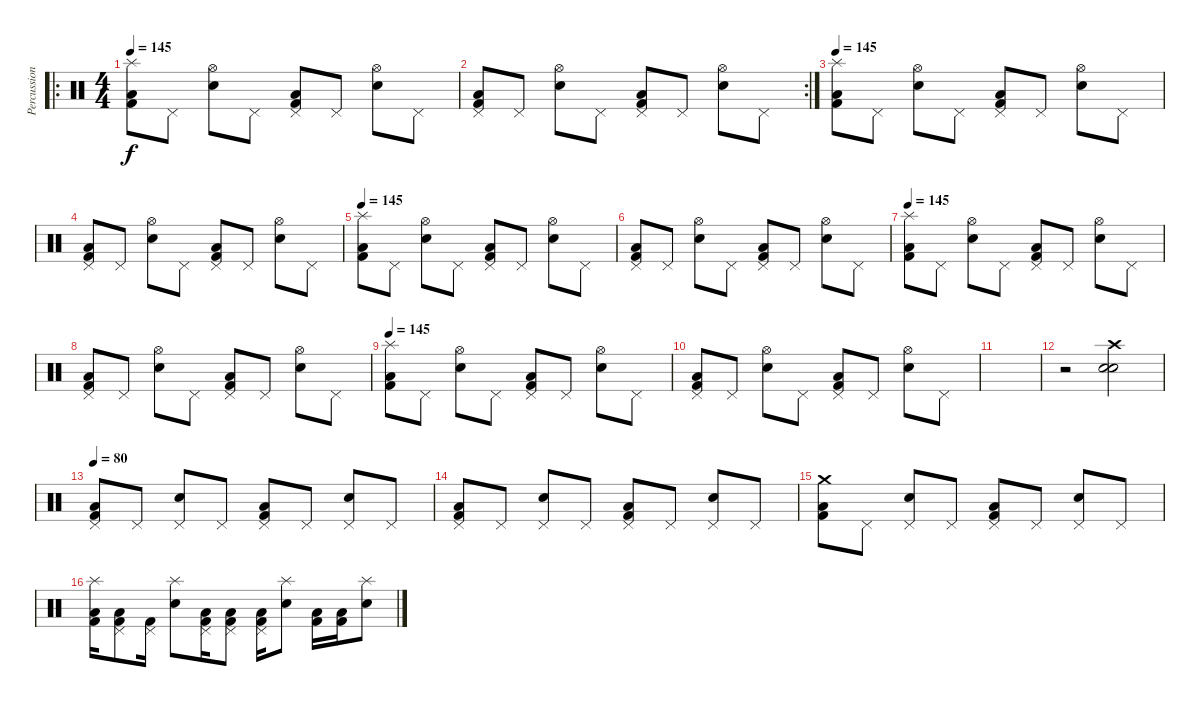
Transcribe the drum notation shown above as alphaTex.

\track ("Percussions" "Percussion") {instrument percussion}
\staff {score}
\articulation defaults
\ro
\ts (4 4)
\tempo 145
\clef neutral
\ks c
("Splash (hit)" "Kick (hit) 2" "Low Floor Tom (hit)").8{dy f} "Pedal Hi-Hat (hit)".8 ("Hi-Hat (open)" "Electric Snare (hit)").8 "Pedal Hi-Hat (hit)".8 ("Pedal Hi-Hat (hit)" "Kick (hit) 2" "Low Floor Tom (hit)").8 "Pedal Hi-Hat (hit)".8 ("Hi-Hat (open)" "Electric Snare (hit)").8 "Pedal Hi-Hat (hit)".8 |
\rc 2
("Pedal Hi-Hat (hit)" "Kick (hit) 2" "Low Floor Tom (hit)").8 "Pedal Hi-Hat (hit)".8 ("Hi-Hat (open)" "Electric Snare (hit)").8 "Pedal Hi-Hat (hit)".8 ("Pedal Hi-Hat (hit)" "Kick (hit) 2" "Low Floor Tom (hit)").8 "Pedal Hi-Hat (hit)".8 ("Hi-Hat (open)" "Electric Snare (hit)").8 "Pedal Hi-Hat (hit)".8 |
\tempo 145
("Splash (hit)" "Kick (hit) 2" "Low Floor Tom (hit)").8 "Pedal Hi-Hat (hit)".8 ("Hi-Hat (open)" "Electric Snare (hit)").8 "Pedal Hi-Hat (hit)".8 ("Pedal Hi-Hat (hit)" "Kick (hit) 2" "Low Floor Tom (hit)").8 "Pedal Hi-Hat (hit)".8 ("Hi-Hat (open)" "Electric Snare (hit)").8 "Pedal Hi-Hat (hit)".8 |
("Pedal Hi-Hat (hit)" "Kick (hit) 2" "Low Floor Tom (hit)").8 "Pedal Hi-Hat (hit)".8 ("Hi-Hat (open)" "Electric Snare (hit)").8 "Pedal Hi-Hat (hit)".8 ("Pedal Hi-Hat (hit)" "Kick (hit) 2" "Low Floor Tom (hit)").8 "Pedal Hi-Hat (hit)".8 ("Hi-Hat (open)" "Electric Snare (hit)").8 "Pedal Hi-Hat (hit)".8 |
\tempo 145
("Splash (hit)" "Kick (hit) 2" "Low Floor Tom (hit)").8 "Pedal Hi-Hat (hit)".8 ("Hi-Hat (open)" "Electric Snare (hit)").8 "Pedal Hi-Hat (hit)".8 ("Pedal Hi-Hat (hit)" "Kick (hit) 2" "Low Floor Tom (hit)").8 "Pedal Hi-Hat (hit)".8 ("Hi-Hat (open)" "Electric Snare (hit)").8 "Pedal Hi-Hat (hit)".8 |
("Pedal Hi-Hat (hit)" "Kick (hit) 2" "Low Floor Tom (hit)").8 "Pedal Hi-Hat (hit)".8 ("Hi-Hat (open)" "Electric Snare (hit)").8 "Pedal Hi-Hat (hit)".8 ("Pedal Hi-Hat (hit)" "Kick (hit) 2" "Low Floor Tom (hit)").8 "Pedal Hi-Hat (hit)".8 ("Hi-Hat (open)" "Electric Snare (hit)").8 "Pedal Hi-Hat (hit)".8 |
\tempo 145
("Splash (hit)" "Kick (hit) 2" "Low Floor Tom (hit)").8 "Pedal Hi-Hat (hit)".8 ("Hi-Hat (open)" "Electric Snare (hit)").8 "Pedal Hi-Hat (hit)".8 ("Pedal Hi-Hat (hit)" "Kick (hit) 2" "Low Floor Tom (hit)").8 "Pedal Hi-Hat (hit)".8 ("Hi-Hat (open)" "Electric Snare (hit)").8 "Pedal Hi-Hat (hit)".8 |
("Pedal Hi-Hat (hit)" "Kick (hit) 2" "Low Floor Tom (hit)").8 "Pedal Hi-Hat (hit)".8 ("Hi-Hat (open)" "Electric Snare (hit)").8 "Pedal Hi-Hat (hit)".8 ("Pedal Hi-Hat (hit)" "Kick (hit) 2" "Low Floor Tom (hit)").8 "Pedal Hi-Hat (hit)".8 ("Hi-Hat (open)" "Electric Snare (hit)").8 "Pedal Hi-Hat (hit)".8 |
\tempo 145
("Splash (hit)" "Kick (hit) 2" "Low Floor Tom (hit)").8 "Pedal Hi-Hat (hit)".8 ("Hi-Hat (open)" "Electric Snare (hit)").8 "Pedal Hi-Hat (hit)".8 ("Pedal Hi-Hat (hit)" "Kick (hit) 2" "Low Floor Tom (hit)").8 "Pedal Hi-Hat (hit)".8 ("Hi-Hat (open)" "Electric Snare (hit)").8 "Pedal Hi-Hat (hit)".8 |
("Pedal Hi-Hat (hit)" "Kick (hit) 2" "Low Floor Tom (hit)").8 "Pedal Hi-Hat (hit)".8 ("Hi-Hat (open)" "Electric Snare (hit)").8 "Pedal Hi-Hat (hit)".8 ("Pedal Hi-Hat (hit)" "Kick (hit) 2" "Low Floor Tom (hit)").8 "Pedal Hi-Hat (hit)".8 ("Hi-Hat (open)" "Electric Snare (hit)").8 "Pedal Hi-Hat (hit)".8 |
|
r.2 ("Crash high (hit)" "Electric Snare (hit)" "Snare (hit) 2").2 |
\tempo 80
("Pedal Hi-Hat (hit)" "Kick (hit) 2" "Low Floor Tom (hit)").8 "Pedal Hi-Hat (hit)".8 ("Pedal Hi-Hat (hit)" "Electric Snare (hit)").8 "Pedal Hi-Hat (hit)".8 ("Pedal Hi-Hat (hit)" "Kick (hit) 2" "Low Floor Tom (hit)").8 "Pedal Hi-Hat (hit)".8 ("Pedal Hi-Hat (hit)" "Electric Snare (hit)").8 "Pedal Hi-Hat (hit)".8 |
("Pedal Hi-Hat (hit)" "Kick (hit) 2" "Low Floor Tom (hit)").8 "Pedal Hi-Hat (hit)".8 ("Pedal Hi-Hat (hit)" "Electric Snare (hit)").8 "Pedal Hi-Hat (hit)".8 ("Pedal Hi-Hat (hit)" "Kick (hit) 2" "Low Floor Tom (hit)").8 "Pedal Hi-Hat (hit)".8 ("Pedal Hi-Hat (hit)" "Electric Snare (hit)").8 "Pedal Hi-Hat (hit)".8 |
("Crash medium (hit)" "Kick (hit) 2" "Low Floor Tom (hit)").8 "Pedal Hi-Hat (hit)".8 ("Pedal Hi-Hat (hit)" "Electric Snare (hit)").8 "Pedal Hi-Hat (hit)".8 ("Pedal Hi-Hat (hit)" "Kick (hit) 2" "Low Floor Tom (hit)").8 "Pedal Hi-Hat (hit)".8 ("Pedal Hi-Hat (hit)" "Electric Snare (hit)").8 "Pedal Hi-Hat (hit)".8 |
("Splash (hit)" "Kick (hit) 2" "Low Floor Tom (hit)").16 ("Pedal Hi-Hat (hit)" "Kick (hit) 2" "Low Floor Tom (hit)").8 ("Pedal Hi-Hat (hit)" "Kick (hit) 2").16 ("Splash (hit)" "Electric Snare (hit)").8 ("Pedal Hi-Hat (hit)" "Kick (hit) 2" "Low Floor Tom (hit)").16 ("Pedal Hi-Hat (hit)" "Kick (hit) 2" "Low Floor Tom (hit)").8 ("Pedal Hi-Hat (hit)" "Kick (hit) 2" "Low Floor Tom (hit)").16 ("Splash (hit)" "Electric Snare (hit)").8 ("Kick (hit) 2" "Low Floor Tom (hit)").16 ("Kick (hit) 2" "Low Floor Tom (hit)").16 ("Splash (hit)" "Electric Snare (hit)").8
